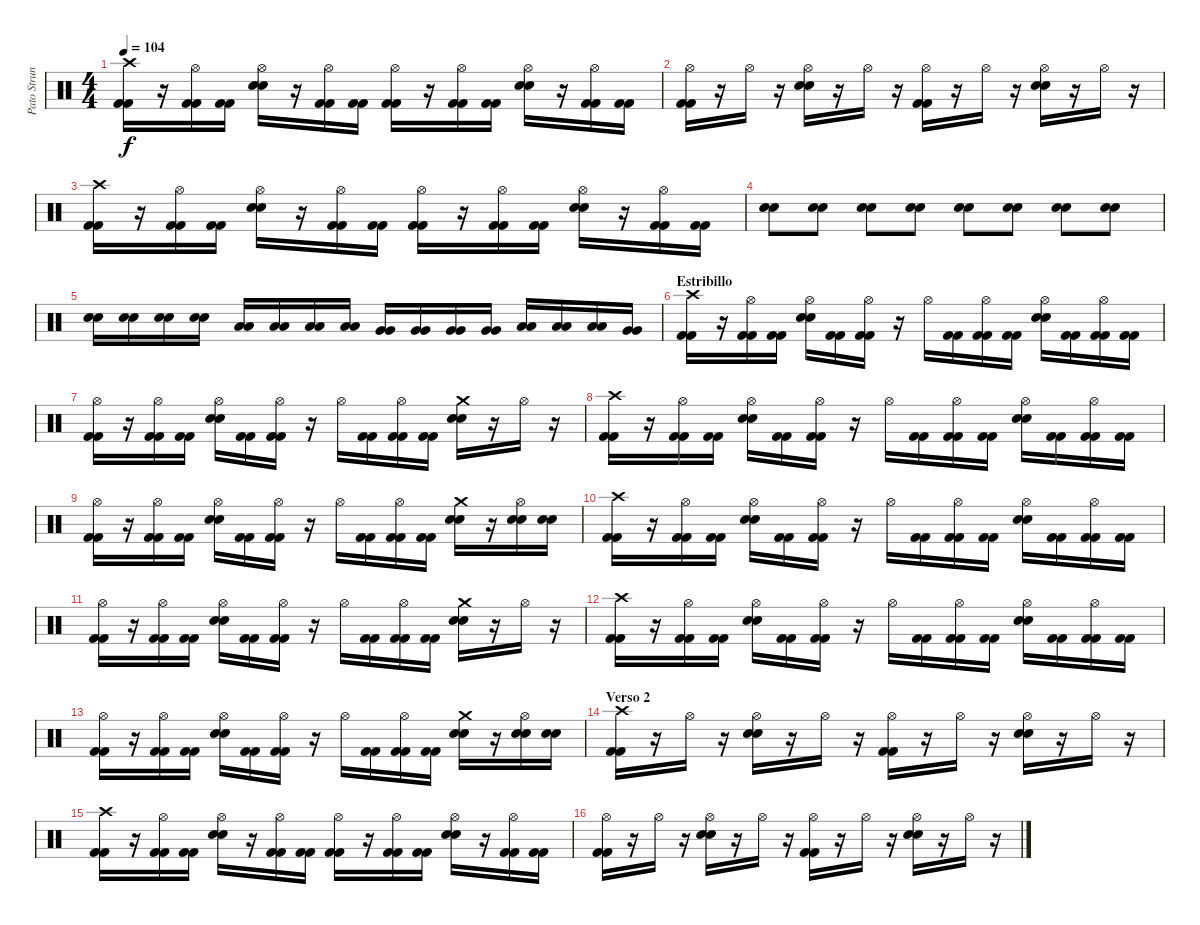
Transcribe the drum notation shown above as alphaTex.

\track ("Pato Strunz (Bateria)" "Pato Strun") {instrument percussion}
\staff {score}
\articulation defaults
\ts (4 4)
\tempo 104
\clef neutral
\ks c
("Crash high (hit)" "Kick (hit) 2" "Kick (hit) 2").16{dy f} r.16 ("Hi-Hat (open)" "Kick (hit) 2" "Kick (hit) 2").16 ("Kick (hit) 2" "Kick (hit) 2").16 ("Hi-Hat (open)" "Snare (hit) 2" "Snare (hit) 2").16 r.16 ("Hi-Hat (open)" "Kick (hit) 2" "Kick (hit) 2").16 ("Kick (hit) 2" "Kick (hit) 2").16 ("Hi-Hat (open)" "Kick (hit) 2" "Kick (hit) 2").16 r.16 ("Hi-Hat (open)" "Kick (hit) 2" "Kick (hit) 2").16 ("Kick (hit) 2" "Kick (hit) 2").16 ("Hi-Hat (open)" "Snare (hit) 2" "Snare (hit) 2").16 r.16 ("Hi-Hat (open)" "Kick (hit) 2" "Kick (hit) 2").16 ("Kick (hit) 2" "Kick (hit) 2").16 |
("Hi-Hat (open)" "Kick (hit) 2" "Kick (hit) 2").16 r.16 "Hi-Hat (open)".16 r.16 ("Hi-Hat (open)" "Snare (hit) 2" "Snare (hit) 2").16 r.16 "Hi-Hat (open)".16 r.16 ("Hi-Hat (open)" "Kick (hit) 2" "Kick (hit) 2").16 r.16 "Hi-Hat (open)".16 r.16 ("Hi-Hat (open)" "Snare (hit) 2" "Snare (hit) 2").16 r.16 "Hi-Hat (open)".16 r.16 |
("Crash high (hit)" "Kick (hit) 2" "Kick (hit) 2").16 r.16 ("Hi-Hat (open)" "Kick (hit) 2" "Kick (hit) 2").16 ("Kick (hit) 2" "Kick (hit) 2").16 ("Hi-Hat (open)" "Snare (hit) 2" "Snare (hit) 2").16 r.16 ("Hi-Hat (open)" "Kick (hit) 2" "Kick (hit) 2").16 ("Kick (hit) 2" "Kick (hit) 2").16 ("Hi-Hat (open)" "Kick (hit) 2" "Kick (hit) 2").16 r.16 ("Hi-Hat (open)" "Kick (hit) 2" "Kick (hit) 2").16 ("Kick (hit) 2" "Kick (hit) 2").16 ("Hi-Hat (open)" "Snare (hit) 2" "Snare (hit) 2").16 r.16 ("Hi-Hat (open)" "Kick (hit) 2" "Kick (hit) 2").16 ("Kick (hit) 2" "Kick (hit) 2").16 |
("Snare (hit) 2" "Snare (hit) 2").8 ("Snare (hit) 2" "Snare (hit) 2").8 ("Snare (hit) 2" "Snare (hit) 2").8 ("Snare (hit) 2" "Snare (hit) 2").8 ("Snare (hit) 2" "Snare (hit) 2").8 ("Snare (hit) 2" "Snare (hit) 2").8 ("Snare (hit) 2" "Snare (hit) 2").8 ("Snare (hit) 2" "Snare (hit) 2").8 |
("Snare (hit) 2" "Snare (hit) 2").16 ("Snare (hit) 2" "Snare (hit) 2").16 ("Snare (hit) 2" "Snare (hit) 2").16 ("Snare (hit) 2" "Snare (hit) 2").16 ("Low Tom (hit)" "Low Tom (hit)").16 ("Low Tom (hit)" "Low Tom (hit)").16 ("Low Tom (hit)" "Low Tom (hit)").16 ("Low Tom (hit)" "Low Tom (hit)").16 ("Very Low Tom (hit)" "Very Low Tom (hit)").16 ("Very Low Tom (hit)" "Very Low Tom (hit)").16 ("Very Low Tom (hit)" "Very Low Tom (hit)").16 ("Very Low Tom (hit)" "Very Low Tom (hit)").16 ("Low Floor Tom (hit)" "Low Floor Tom (hit)").16 ("Low Floor Tom (hit)" "Low Floor Tom (hit)").16 ("Low Floor Tom (hit)" "Low Floor Tom (hit)").16 ("Very Low Tom (hit)" "Very Low Tom (hit)").16 |
\section ("" "Estribillo")
("Crash high (hit)" "Kick (hit) 2" "Kick (hit) 2").16 r.16 ("Hi-Hat (open)" "Kick (hit) 2" "Kick (hit) 2").16 ("Kick (hit) 2" "Kick (hit) 2").16 ("Hi-Hat (open)" "Snare (hit) 2" "Snare (hit) 2").16 ("Kick (hit) 2" "Kick (hit) 2").16 ("Hi-Hat (open)" "Kick (hit) 2" "Kick (hit) 2").16 r.16 "Hi-Hat (open)".16 ("Kick (hit) 2" "Kick (hit) 2").16 ("Hi-Hat (open)" "Kick (hit) 2" "Kick (hit) 2").16 ("Kick (hit) 2" "Kick (hit) 2").16 ("Hi-Hat (open)" "Snare (hit) 2" "Snare (hit) 2").16 ("Kick (hit) 2" "Kick (hit) 2").16 ("Hi-Hat (open)" "Kick (hit) 2" "Kick (hit) 2").16 ("Kick (hit) 2" "Kick (hit) 2").16 |
("Hi-Hat (open)" "Kick (hit) 2" "Kick (hit) 2").16 r.16 ("Hi-Hat (open)" "Kick (hit) 2" "Kick (hit) 2").16 ("Kick (hit) 2" "Kick (hit) 2").16 ("Hi-Hat (open)" "Snare (hit) 2" "Snare (hit) 2").16 ("Kick (hit) 2" "Kick (hit) 2").16 ("Hi-Hat (open)" "Kick (hit) 2" "Kick (hit) 2").16 r.16 "Hi-Hat (open)".16 ("Kick (hit) 2" "Kick (hit) 2").16 ("Hi-Hat (open)" "Kick (hit) 2" "Kick (hit) 2").16 ("Kick (hit) 2" "Kick (hit) 2").16 ("Crash medium (hit)" "Snare (hit) 2" "Snare (hit) 2").16 r.16 "Hi-Hat (open)".16 r.16 |
("Crash high (hit)" "Kick (hit) 2" "Kick (hit) 2").16 r.16 ("Hi-Hat (open)" "Kick (hit) 2" "Kick (hit) 2").16 ("Kick (hit) 2" "Kick (hit) 2").16 ("Hi-Hat (open)" "Snare (hit) 2" "Snare (hit) 2").16 ("Kick (hit) 2" "Kick (hit) 2").16 ("Hi-Hat (open)" "Kick (hit) 2" "Kick (hit) 2").16 r.16 "Hi-Hat (open)".16 ("Kick (hit) 2" "Kick (hit) 2").16 ("Hi-Hat (open)" "Kick (hit) 2" "Kick (hit) 2").16 ("Kick (hit) 2" "Kick (hit) 2").16 ("Hi-Hat (open)" "Snare (hit) 2" "Snare (hit) 2").16 ("Kick (hit) 2" "Kick (hit) 2").16 ("Hi-Hat (open)" "Kick (hit) 2" "Kick (hit) 2").16 ("Kick (hit) 2" "Kick (hit) 2").16 |
("Hi-Hat (open)" "Kick (hit) 2" "Kick (hit) 2").16 r.16 ("Hi-Hat (open)" "Kick (hit) 2" "Kick (hit) 2").16 ("Kick (hit) 2" "Kick (hit) 2").16 ("Hi-Hat (open)" "Snare (hit) 2" "Snare (hit) 2").16 ("Kick (hit) 2" "Kick (hit) 2").16 ("Hi-Hat (open)" "Kick (hit) 2" "Kick (hit) 2").16 r.16 "Hi-Hat (open)".16 ("Kick (hit) 2" "Kick (hit) 2").16 ("Hi-Hat (open)" "Kick (hit) 2" "Kick (hit) 2").16 ("Kick (hit) 2" "Kick (hit) 2").16 ("Crash medium (hit)" "Snare (hit) 2" "Snare (hit) 2").16 r.16 ("Hi-Hat (open)" "Snare (hit) 2" "Snare (hit) 2").16 ("Snare (hit) 2" "Snare (hit) 2").16 |
("Crash high (hit)" "Kick (hit) 2" "Kick (hit) 2").16 r.16 ("Hi-Hat (open)" "Kick (hit) 2" "Kick (hit) 2").16 ("Kick (hit) 2" "Kick (hit) 2").16 ("Hi-Hat (open)" "Snare (hit) 2" "Snare (hit) 2").16 ("Kick (hit) 2" "Kick (hit) 2").16 ("Hi-Hat (open)" "Kick (hit) 2" "Kick (hit) 2").16 r.16 "Hi-Hat (open)".16 ("Kick (hit) 2" "Kick (hit) 2").16 ("Hi-Hat (open)" "Kick (hit) 2" "Kick (hit) 2").16 ("Kick (hit) 2" "Kick (hit) 2").16 ("Hi-Hat (open)" "Snare (hit) 2" "Snare (hit) 2").16 ("Kick (hit) 2" "Kick (hit) 2").16 ("Hi-Hat (open)" "Kick (hit) 2" "Kick (hit) 2").16 ("Kick (hit) 2" "Kick (hit) 2").16 |
("Hi-Hat (open)" "Kick (hit) 2" "Kick (hit) 2").16 r.16 ("Hi-Hat (open)" "Kick (hit) 2" "Kick (hit) 2").16 ("Kick (hit) 2" "Kick (hit) 2").16 ("Hi-Hat (open)" "Snare (hit) 2" "Snare (hit) 2").16 ("Kick (hit) 2" "Kick (hit) 2").16 ("Hi-Hat (open)" "Kick (hit) 2" "Kick (hit) 2").16 r.16 "Hi-Hat (open)".16 ("Kick (hit) 2" "Kick (hit) 2").16 ("Hi-Hat (open)" "Kick (hit) 2" "Kick (hit) 2").16 ("Kick (hit) 2" "Kick (hit) 2").16 ("Crash medium (hit)" "Snare (hit) 2" "Snare (hit) 2").16 r.16 "Hi-Hat (open)".16 r.16 |
("Crash high (hit)" "Kick (hit) 2" "Kick (hit) 2").16 r.16 ("Hi-Hat (open)" "Kick (hit) 2" "Kick (hit) 2").16 ("Kick (hit) 2" "Kick (hit) 2").16 ("Hi-Hat (open)" "Snare (hit) 2" "Snare (hit) 2").16 ("Kick (hit) 2" "Kick (hit) 2").16 ("Hi-Hat (open)" "Kick (hit) 2" "Kick (hit) 2").16 r.16 "Hi-Hat (open)".16 ("Kick (hit) 2" "Kick (hit) 2").16 ("Hi-Hat (open)" "Kick (hit) 2" "Kick (hit) 2").16 ("Kick (hit) 2" "Kick (hit) 2").16 ("Hi-Hat (open)" "Snare (hit) 2" "Snare (hit) 2").16 ("Kick (hit) 2" "Kick (hit) 2").16 ("Hi-Hat (open)" "Kick (hit) 2" "Kick (hit) 2").16 ("Kick (hit) 2" "Kick (hit) 2").16 |
("Hi-Hat (open)" "Kick (hit) 2" "Kick (hit) 2").16 r.16 ("Hi-Hat (open)" "Kick (hit) 2" "Kick (hit) 2").16 ("Kick (hit) 2" "Kick (hit) 2").16 ("Hi-Hat (open)" "Snare (hit) 2" "Snare (hit) 2").16 ("Kick (hit) 2" "Kick (hit) 2").16 ("Hi-Hat (open)" "Kick (hit) 2" "Kick (hit) 2").16 r.16 "Hi-Hat (open)".16 ("Kick (hit) 2" "Kick (hit) 2").16 ("Hi-Hat (open)" "Kick (hit) 2" "Kick (hit) 2").16 ("Kick (hit) 2" "Kick (hit) 2").16 ("Crash medium (hit)" "Snare (hit) 2" "Snare (hit) 2").16 r.16 ("Hi-Hat (open)" "Snare (hit) 2" "Snare (hit) 2").16 ("Snare (hit) 2" "Snare (hit) 2").16 |
\section ("" "Verso 2")
("Crash high (hit)" "Kick (hit) 2" "Kick (hit) 2").16 r.16 "Hi-Hat (open)".16 r.16 ("Hi-Hat (open)" "Snare (hit) 2" "Snare (hit) 2").16 r.16 "Hi-Hat (open)".16 r.16 ("Hi-Hat (open)" "Kick (hit) 2" "Kick (hit) 2").16 r.16 "Hi-Hat (open)".16 r.16 ("Hi-Hat (open)" "Snare (hit) 2" "Snare (hit) 2").16 r.16 "Hi-Hat (open)".16 r.16 |
("Crash high (hit)" "Kick (hit) 2" "Kick (hit) 2").16 r.16 ("Hi-Hat (open)" "Kick (hit) 2" "Kick (hit) 2").16 ("Kick (hit) 2" "Kick (hit) 2").16 ("Hi-Hat (open)" "Snare (hit) 2" "Snare (hit) 2").16 r.16 ("Hi-Hat (open)" "Kick (hit) 2" "Kick (hit) 2").16 ("Kick (hit) 2" "Kick (hit) 2").16 ("Hi-Hat (open)" "Kick (hit) 2" "Kick (hit) 2").16 r.16 ("Hi-Hat (open)" "Kick (hit) 2" "Kick (hit) 2").16 ("Kick (hit) 2" "Kick (hit) 2").16 ("Hi-Hat (open)" "Snare (hit) 2" "Snare (hit) 2").16 r.16 ("Hi-Hat (open)" "Kick (hit) 2" "Kick (hit) 2").16 ("Kick (hit) 2" "Kick (hit) 2").16 |
("Hi-Hat (open)" "Kick (hit) 2" "Kick (hit) 2").16 r.16 "Hi-Hat (open)".16 r.16 ("Hi-Hat (open)" "Snare (hit) 2" "Snare (hit) 2").16 r.16 "Hi-Hat (open)".16 r.16 ("Hi-Hat (open)" "Kick (hit) 2" "Kick (hit) 2").16 r.16 "Hi-Hat (open)".16 r.16 ("Hi-Hat (open)" "Snare (hit) 2" "Snare (hit) 2").16 r.16 "Hi-Hat (open)".16 r.16
